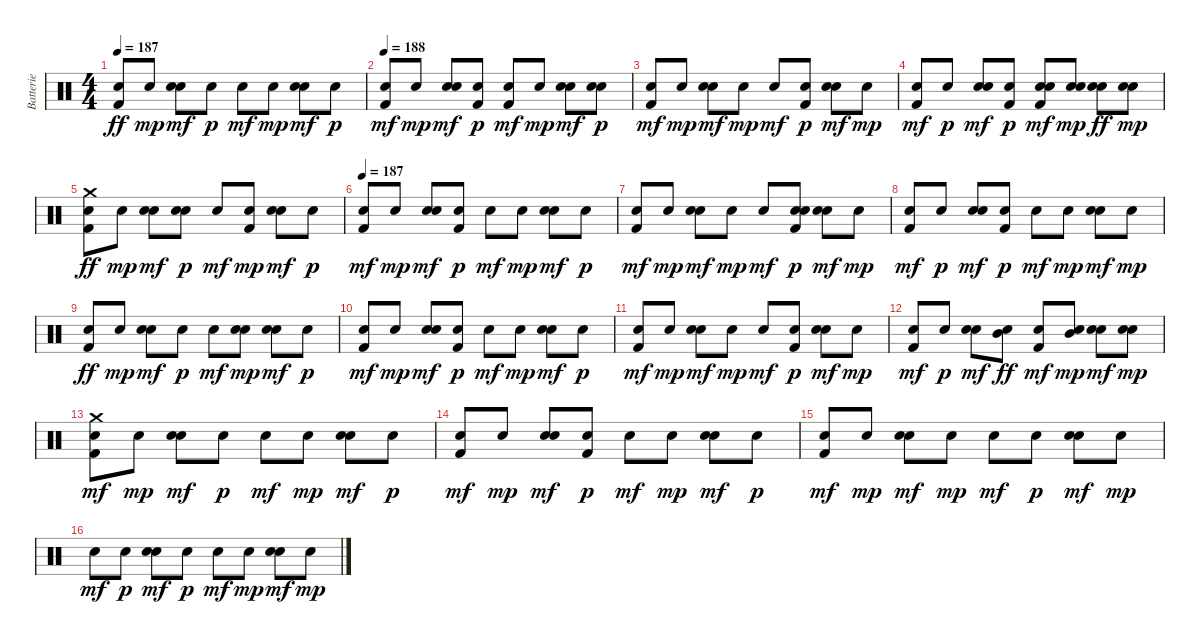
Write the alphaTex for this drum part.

\track ("Batterie            " "Batterie  ") {instrument percussion}
\staff {score}
\articulation defaults
\ts (4 4)
\tempo 187
\clef neutral
\ks c
("Kick (hit) 2" "Snare (hit) 2").8{dy ff} "Snare (hit) 2".8{dy mp} ("Hand Clap (hit)" "Snare (hit) 2").8{dy mf} "Snare (hit) 2".8{dy p} "Snare (hit) 2".8{dy mf} "Snare (hit) 2".8{dy mp} ("Hand Clap (hit)" "Snare (hit) 2").8{dy mf} "Snare (hit) 2".8{dy p} |
\tempo 188
("Kick (hit) 2" "Snare (hit) 2").8{dy mf} "Snare (hit) 2".8{dy mp} ("Hand Clap (hit)" "Snare (hit) 2").8{dy mf} ("Kick (hit) 2" "Snare (hit) 2").8{dy p} ("Kick (hit) 2" "Snare (hit) 2").8{dy mf} "Snare (hit) 2".8{dy mp} ("Hand Clap (hit)" "Snare (hit) 2").8{dy mf} ("Hand Clap (hit)" "Snare (hit) 2").8{dy p} |
("Kick (hit) 2" "Snare (hit) 2").8{dy mf} "Snare (hit) 2".8{dy mp} ("Hand Clap (hit)" "Snare (hit) 2").8{dy mf} "Snare (hit) 2".8{dy mp} "Snare (hit) 2".8{dy mf} ("Kick (hit) 2" "Snare (hit) 2").8{dy p} ("Hand Clap (hit)" "Snare (hit) 2").8{dy mf} "Snare (hit) 2".8{dy mp} |
("Kick (hit) 2" "Snare (hit) 2").8{dy mf} "Snare (hit) 2".8{dy p} ("Hand Clap (hit)" "Snare (hit) 2").8{dy mf} ("Kick (hit) 2" "Snare (hit) 2").8{dy p} ("Hand Clap (hit)" "Kick (hit) 2" "Snare (hit) 2").8{dy mf} ("Hand Clap (hit)" "Snare (hit) 2").8{dy mp} ("Hand Clap (hit)" "Snare (hit) 2").8{dy ff} ("Hand Clap (hit)" "Snare (hit) 2").8{dy mp} |
("Kick (hit) 2" "Snare (hit) 2" "Crash medium (hit)").8{dy ff} "Snare (hit) 2".8{dy mp} ("Hand Clap (hit)" "Snare (hit) 2").8{dy mf} ("Hand Clap (hit)" "Snare (hit) 2").8{dy p} "Snare (hit) 2".8{dy mf} ("Kick (hit) 2" "Snare (hit) 2").8{dy mp} ("Hand Clap (hit)" "Snare (hit) 2").8{dy mf} "Snare (hit) 2".8{dy p} |
\tempo 187
("Kick (hit) 2" "Snare (hit) 2").8{dy mf} "Snare (hit) 2".8{dy mp} ("Hand Clap (hit)" "Snare (hit) 2").8{dy mf} ("Kick (hit) 2" "Snare (hit) 2").8{dy p} "Snare (hit) 2".8{dy mf} "Snare (hit) 2".8{dy mp} ("Hand Clap (hit)" "Snare (hit) 2").8{dy mf} "Snare (hit) 2".8{dy p} |
("Kick (hit) 2" "Snare (hit) 2").8{dy mf} "Snare (hit) 2".8{dy mp} ("Hand Clap (hit)" "Snare (hit) 2").8{dy mf} "Snare (hit) 2".8{dy mp} "Snare (hit) 2".8{dy mf} ("Hand Clap (hit)" "Kick (hit) 2" "Snare (hit) 2").8{dy p} ("Hand Clap (hit)" "Snare (hit) 2").8{dy mf} "Snare (hit) 2".8{dy mp} |
("Kick (hit) 2" "Snare (hit) 2").8{dy mf} "Snare (hit) 2".8{dy p} ("Hand Clap (hit)" "Snare (hit) 2").8{dy mf} ("Kick (hit) 2" "Snare (hit) 2").8{dy p} "Snare (hit) 2".8{dy mf} "Snare (hit) 2".8{dy mp} ("Hand Clap (hit)" "Snare (hit) 2").8{dy mf} "Snare (hit) 2".8{dy mp} |
("Kick (hit) 2" "Snare (hit) 2").8{dy ff} "Snare (hit) 2".8{dy mp} ("Hand Clap (hit)" "Snare (hit) 2").8{dy mf} "Snare (hit) 2".8{dy p} "Snare (hit) 2".8{dy mf} ("Hand Clap (hit)" "Snare (hit) 2").8{dy mp} ("Hand Clap (hit)" "Snare (hit) 2").8{dy mf} "Snare (hit) 2".8{dy p} |
("Kick (hit) 2" "Snare (hit) 2").8{dy mf} "Snare (hit) 2".8{dy mp} ("Hand Clap (hit)" "Snare (hit) 2").8{dy mf} ("Kick (hit) 2" "Snare (hit) 2").8{dy p} "Snare (hit) 2".8{dy mf} "Snare (hit) 2".8{dy mp} ("Hand Clap (hit)" "Snare (hit) 2").8{dy mf} "Snare (hit) 2".8{dy p} |
("Kick (hit) 2" "Snare (hit) 2").8{dy mf} "Snare (hit) 2".8{dy mp} ("Hand Clap (hit)" "Snare (hit) 2").8{dy mf} "Snare (hit) 2".8{dy mp} "Snare (hit) 2".8{dy mf} ("Kick (hit) 2" "Snare (hit) 2").8{dy p} ("Hand Clap (hit)" "Snare (hit) 2").8{dy mf} "Snare (hit) 2".8{dy mp} |
("Kick (hit) 2" "Snare (hit) 2").8{dy mf} "Snare (hit) 2".8{dy p} ("Hand Clap (hit)" "Snare (hit) 2").8{dy mf} ("Snare (hit) 2" "Mid Tom (hit)").8{dy ff} ("Kick (hit) 2" "Snare (hit) 2").8{dy mf} ("Mid Tom (hit)" "Snare (hit) 2").8{dy mp} ("Hand Clap (hit)" "Snare (hit) 2").8{dy mf} ("Hand Clap (hit)" "Snare (hit) 2").8{dy mp} |
("Kick (hit) 2" "Snare (hit) 2" "Crash medium (hit)").8{dy mf} "Snare (hit) 2".8{dy mp} ("Hand Clap (hit)" "Snare (hit) 2").8{dy mf} "Snare (hit) 2".8{dy p} "Snare (hit) 2".8{dy mf} "Snare (hit) 2".8{dy mp} ("Hand Clap (hit)" "Snare (hit) 2").8{dy mf} "Snare (hit) 2".8{dy p} |
("Kick (hit) 2" "Snare (hit) 2").8{dy mf} "Snare (hit) 2".8{dy mp} ("Hand Clap (hit)" "Snare (hit) 2").8{dy mf} ("Kick (hit) 2" "Snare (hit) 2").8{dy p} "Snare (hit) 2".8{dy mf} "Snare (hit) 2".8{dy mp} ("Hand Clap (hit)" "Snare (hit) 2").8{dy mf} "Snare (hit) 2".8{dy p} |
("Kick (hit) 2" "Snare (hit) 2").8{dy mf} "Snare (hit) 2".8{dy mp} ("Hand Clap (hit)" "Snare (hit) 2").8{dy mf} "Snare (hit) 2".8{dy mp} "Snare (hit) 2".8{dy mf} "Snare (hit) 2".8{dy p} ("Hand Clap (hit)" "Snare (hit) 2").8{dy mf} "Snare (hit) 2".8{dy mp} |
"Snare (hit) 2".8{dy mf} "Snare (hit) 2".8{dy p} ("Hand Clap (hit)" "Snare (hit) 2").8{dy mf} "Snare (hit) 2".8{dy p} "Snare (hit) 2".8{dy mf} "Snare (hit) 2".8{dy mp} ("Hand Clap (hit)" "Snare (hit) 2").8{dy mf} "Snare (hit) 2".8{dy mp}
